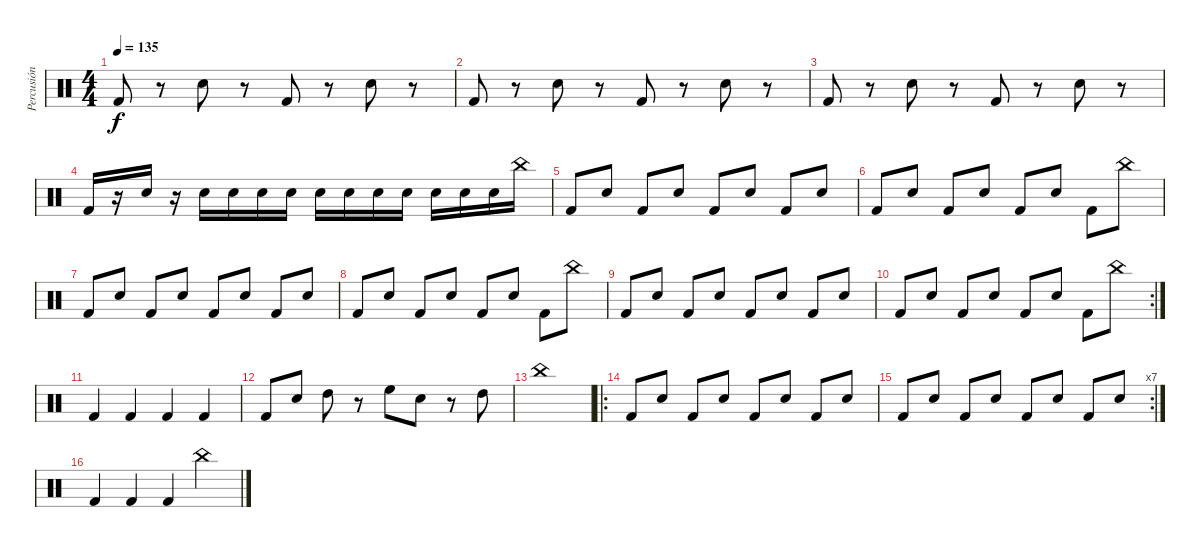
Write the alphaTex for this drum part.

\track ("Percusión" "Percusión") {instrument percussion}
\staff {score}
\articulation defaults
\ts (4 4)
\tempo 135
\clef neutral
\ks c "Kick (hit) 2".8{dy f}
r.8 "Electric Snare (hit)".8 r.8 "Kick (hit) 2".8 r.8 "Electric Snare (hit)".8 r.8 |
"Kick (hit) 2".8 r.8 "Electric Snare (hit)".8 r.8 "Kick (hit) 2".8 r.8 "Electric Snare (hit)".8 r.8 |
"Kick (hit) 2".8 r.8 "Electric Snare (hit)".8 r.8 "Kick (hit) 2".8 r.8 "Electric Snare (hit)".8 r.8 |
"Kick (hit) 2".16 r.16 "Electric Snare (hit)".16 r.16 "Electric Snare (hit)".16 "Electric Snare (hit)".16 "Electric Snare (hit)".16 "Electric Snare (hit)".16 "Electric Snare (hit)".16 "Electric Snare (hit)".16 "Electric Snare (hit)".16 "Electric Snare (hit)".16 "Electric Snare (hit)".16 "Electric Snare (hit)".16 "Electric Snare (hit)".16 "China (hit)".16 |
"Kick (hit) 2".8 "Electric Snare (hit)".8 "Kick (hit) 2".8 "Electric Snare (hit)".8 "Kick (hit) 2".8 "Electric Snare (hit)".8 "Kick (hit) 2".8 "Electric Snare (hit)".8 |
"Kick (hit) 2".8 "Electric Snare (hit)".8 "Kick (hit) 2".8 "Electric Snare (hit)".8 "Kick (hit) 2".8 "Electric Snare (hit)".8 "Kick (hit) 2".8 "China (hit)".8 |
"Kick (hit) 2".8 "Electric Snare (hit)".8 "Kick (hit) 2".8 "Electric Snare (hit)".8 "Kick (hit) 2".8 "Electric Snare (hit)".8 "Kick (hit) 2".8 "Electric Snare (hit)".8 |
"Kick (hit) 2".8 "Electric Snare (hit)".8 "Kick (hit) 2".8 "Electric Snare (hit)".8 "Kick (hit) 2".8 "Electric Snare (hit)".8 "Kick (hit) 2".8 "China (hit)".8 |
"Kick (hit) 2".8 "Electric Snare (hit)".8 "Kick (hit) 2".8 "Electric Snare (hit)".8 "Kick (hit) 2".8 "Electric Snare (hit)".8 "Kick (hit) 2".8 "Electric Snare (hit)".8 |
\rc 2 "Kick (hit) 2".8 "Electric Snare (hit)".8 "Kick (hit) 2".8 "Electric Snare (hit)".8 "Kick (hit) 2".8 "Electric Snare (hit)".8 "Kick (hit) 2".8 "China (hit)".8
|
"Kick (hit) 2".4 "Kick (hit) 2".4 "Kick (hit) 2".4 "Kick (hit) 2".4 |
"Kick (hit) 2".8 "Electric Snare (hit)".8 "High Tom (hit)".8 r.8 "High Floor Tom (hit)".8 "Electric Snare (hit)".8 r.8 "High Tom (hit)".8 |
"China (hit)".1 |
\ro "Kick (hit) 2".8 "Electric Snare (hit)".8 "Kick (hit) 2".8 "Electric Snare (hit)".8 "Kick (hit) 2".8 "Electric Snare (hit)".8 "Kick (hit) 2".8 "Electric Snare (hit)".8
|
\rc 7 "Kick (hit) 2".8 "Electric Snare (hit)".8 "Kick (hit) 2".8 "Electric Snare (hit)".8 "Kick (hit) 2".8 "Electric Snare (hit)".8 "Kick (hit) 2".8 "Electric Snare (hit)".8
|
"Kick (hit) 2".4 "Kick (hit) 2".4 "Kick (hit) 2".4 "China (hit)".4
